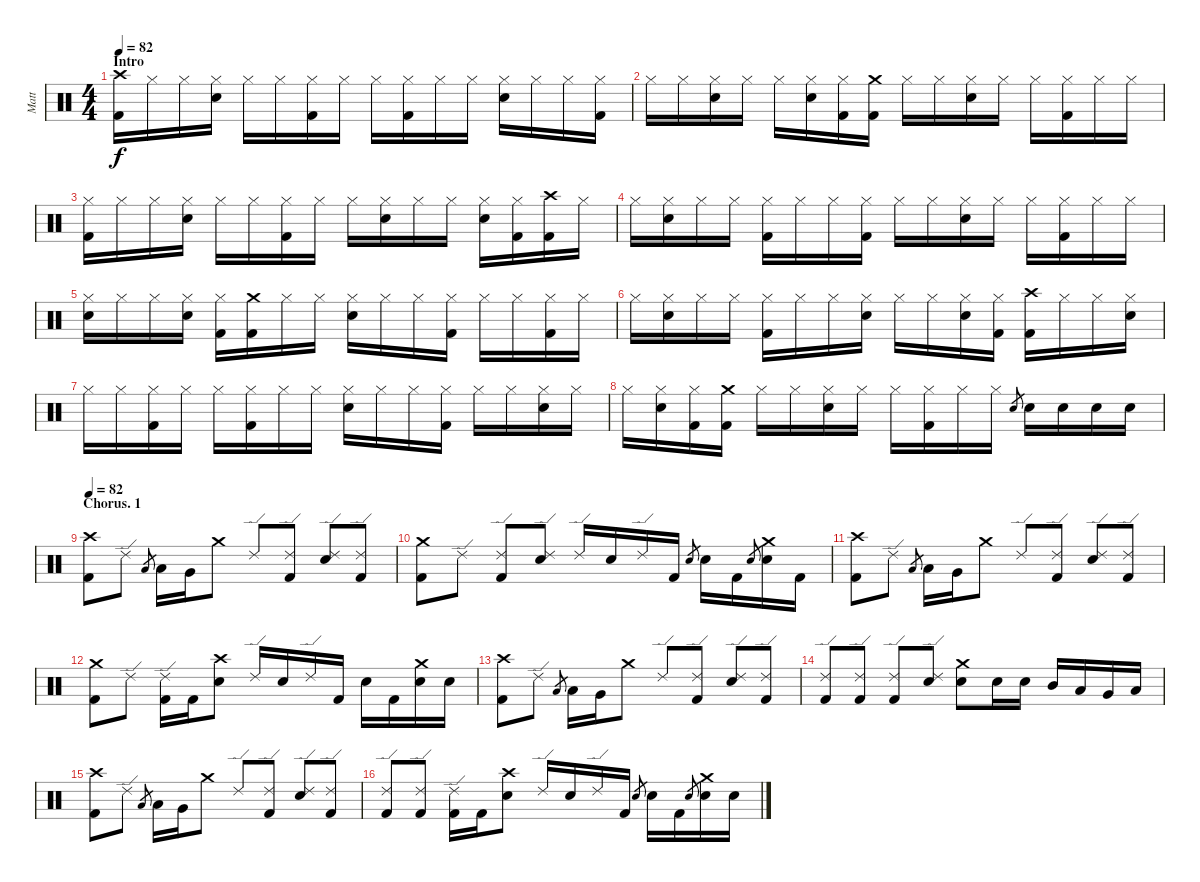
\track ("Matt" "Matt") {instrument percussion}
\staff {score}
\articulation defaults
\ts (4 4)
\section ("" "Intro")
\tempo 82
\tempo 85
\tempo 82
\clef neutral
\ks c
("Crash high (hit)" "Kick (hit) 2").16{dy f} "Hi-Hat (closed)".16 "Hi-Hat (closed)".16 ("Hi-Hat (closed)" "Electric Snare (hit)").16 "Hi-Hat (closed)".16 "Hi-Hat (closed)".16 ("Hi-Hat (closed)" "Kick (hit) 2").16 "Hi-Hat (closed)".16 "Hi-Hat (closed)".16 ("Hi-Hat (closed)" "Kick (hit) 2").16 "Hi-Hat (closed)".16 "Hi-Hat (closed)".16 ("Hi-Hat (closed)" "Electric Snare (hit)").16 "Hi-Hat (closed)".16 "Hi-Hat (closed)".16 ("Hi-Hat (closed)" "Kick (hit) 2").16 |
"Hi-Hat (closed)".16 "Hi-Hat (closed)".16 ("Hi-Hat (closed)" "Electric Snare (hit)").16 "Hi-Hat (closed)".16 "Hi-Hat (closed)".16 ("Hi-Hat (closed)" "Electric Snare (hit)").16 ("Hi-Hat (closed)" "Kick (hit) 2").16 ("Crash medium (hit)" "Kick (hit) 2").16 "Hi-Hat (closed)".16 "Hi-Hat (closed)".16 ("Hi-Hat (closed)" "Electric Snare (hit)").16 "Hi-Hat (closed)".16 "Hi-Hat (closed)".16 ("Hi-Hat (closed)" "Kick (hit) 2").16 "Hi-Hat (closed)".16 "Hi-Hat (closed)".16 |
("Hi-Hat (closed)" "Kick (hit) 2").16 "Hi-Hat (closed)".16 "Hi-Hat (closed)".16 ("Hi-Hat (closed)" "Electric Snare (hit)").16 "Hi-Hat (closed)".16 "Hi-Hat (closed)".16 ("Hi-Hat (closed)" "Kick (hit) 2").16 "Hi-Hat (closed)".16 "Hi-Hat (closed)".16 ("Hi-Hat (closed)" "Electric Snare (hit)").16 "Hi-Hat (closed)".16 "Hi-Hat (closed)".16 ("Hi-Hat (closed)" "Electric Snare (hit)").16 ("Hi-Hat (closed)" "Kick (hit) 2").16 ("Crash high (hit)" "Kick (hit) 2").16 "Hi-Hat (closed)".16 |
"Hi-Hat (closed)".16 ("Hi-Hat (closed)" "Electric Snare (hit)").16 "Hi-Hat (closed)".16 "Hi-Hat (closed)".16 ("Hi-Hat (closed)" "Kick (hit) 2").16 "Hi-Hat (closed)".16 "Hi-Hat (closed)".16 ("Hi-Hat (closed)" "Kick (hit) 2").16 "Hi-Hat (closed)".16 "Hi-Hat (closed)".16 ("Hi-Hat (closed)" "Electric Snare (hit)").16 "Hi-Hat (closed)".16 "Hi-Hat (closed)".16 ("Hi-Hat (closed)" "Kick (hit) 2").16 "Hi-Hat (closed)".16 "Hi-Hat (closed)".16 |
("Hi-Hat (closed)" "Electric Snare (hit)").16 "Hi-Hat (closed)".16 "Hi-Hat (closed)".16 ("Hi-Hat (closed)" "Electric Snare (hit)").16 ("Hi-Hat (closed)" "Kick (hit) 2").16 ("Crash medium (hit)" "Kick (hit) 2").16 "Hi-Hat (closed)".16 "Hi-Hat (closed)".16 ("Hi-Hat (closed)" "Electric Snare (hit)").16 "Hi-Hat (closed)".16 "Hi-Hat (closed)".16 ("Hi-Hat (closed)" "Kick (hit) 2").16 "Hi-Hat (closed)".16 "Hi-Hat (closed)".16 ("Hi-Hat (closed)" "Kick (hit) 2").16 "Hi-Hat (closed)".16 |
"Hi-Hat (closed)".16 ("Hi-Hat (closed)" "Electric Snare (hit)").16 "Hi-Hat (closed)".16 "Hi-Hat (closed)".16 ("Hi-Hat (closed)" "Kick (hit) 2").16 "Hi-Hat (closed)".16 "Hi-Hat (closed)".16 ("Hi-Hat (closed)" "Electric Snare (hit)").16 "Hi-Hat (closed)".16 "Hi-Hat (closed)".16 ("Hi-Hat (closed)" "Electric Snare (hit)").16 ("Hi-Hat (closed)" "Kick (hit) 2").16 ("Crash high (hit)" "Kick (hit) 2").16 "Hi-Hat (closed)".16 "Hi-Hat (closed)".16 ("Hi-Hat (closed)" "Electric Snare (hit)").16 |
"Hi-Hat (closed)".16 "Hi-Hat (closed)".16 ("Hi-Hat (closed)" "Kick (hit) 2").16 "Hi-Hat (closed)".16 "Hi-Hat (closed)".16 ("Hi-Hat (closed)" "Kick (hit) 2").16 "Hi-Hat (closed)".16 "Hi-Hat (closed)".16 ("Hi-Hat (closed)" "Electric Snare (hit)").16 "Hi-Hat (closed)".16 "Hi-Hat (closed)".16 ("Hi-Hat (closed)" "Kick (hit) 2").16 "Hi-Hat (closed)".16 "Hi-Hat (closed)".16 ("Hi-Hat (closed)" "Electric Snare (hit)").16 "Hi-Hat (closed)".16 |
"Hi-Hat (closed)".16 ("Hi-Hat (closed)" "Electric Snare (hit)").16 ("Hi-Hat (closed)" "Kick (hit) 2").16 ("Crash medium (hit)" "Kick (hit) 2").16 "Hi-Hat (closed)".16 "Hi-Hat (closed)".16 ("Hi-Hat (closed)" "Electric Snare (hit)").16 "Hi-Hat (closed)".16 "Hi-Hat (closed)".16 ("Hi-Hat (closed)" "Kick (hit) 2").16 "Hi-Hat (closed)".16 "Hi-Hat (closed)".16 "Electric Snare (hit)".8{gr} "Electric Snare (hit)".16 "Electric Snare (hit)".16 "Electric Snare (hit)".16 "Electric Snare (hit)".16 |
\section ("" "Chorus. 1")
\tempo 82
("Crash high (hit)" "Kick (hit) 2").8 "Ride (edge) 2".8 "Low Tom (hit)".8{gr} "Low Tom (hit)".16 "Very Low Tom (hit)".16 "Crash medium (hit)".8 "Ride (edge) 2".8 ("Ride (edge) 2" "Kick (hit) 2").8 ("Ride (edge) 2" "Electric Snare (hit)").8 ("Ride (edge) 2" "Kick (hit) 2").8 |
("Crash medium (hit)" "Kick (hit) 2").8 "Ride (edge) 2".8 ("Ride (edge) 2" "Kick (hit) 2").8 ("Ride (edge) 2" "Electric Snare (hit)").8 "Ride (edge) 2".16 "Electric Snare (hit)".16 "Ride (edge) 2".16 "Kick (hit) 2".16 "Electric Snare (hit)".8{gr} "Electric Snare (hit)".16 "Kick (hit) 2".16 "Electric Snare (hit)".8{gr} ("Crash medium (hit)" "Electric Snare (hit)").16 "Kick (hit) 2".16 |
("Crash high (hit)" "Kick (hit) 2").8 "Ride (edge) 2".8 "Low Tom (hit)".8{gr} "Low Tom (hit)".16 "Very Low Tom (hit)".16 "Crash medium (hit)".8 "Ride (edge) 2".8 ("Ride (edge) 2" "Kick (hit) 2").8 ("Ride (edge) 2" "Electric Snare (hit)").8 ("Ride (edge) 2" "Kick (hit) 2").8 |
("Crash medium (hit)" "Kick (hit) 2").8 "Ride (edge) 2".8 ("Ride (edge) 2" "Kick (hit) 2").16 "Kick (hit) 2".16 ("Crash high (hit)" "Electric Snare (hit)").8 "Ride (edge) 2".16 "Electric Snare (hit)".16 "Ride (edge) 2".16 "Kick (hit) 2".16 "Electric Snare (hit)".16 "Kick (hit) 2".16 ("Crash medium (hit)" "Electric Snare (hit)").16 "Electric Snare (hit)".16 |
("Crash high (hit)" "Kick (hit) 2").8 "Ride (edge) 2".8 "Low Tom (hit)".8{gr} "Low Tom (hit)".16 "Very Low Tom (hit)".16 "Crash medium (hit)".8 "Ride (edge) 2".8 ("Ride (edge) 2" "Kick (hit) 2").8 ("Ride (edge) 2" "Electric Snare (hit)").8 ("Ride (edge) 2" "Kick (hit) 2").8 |
("Ride (edge) 2" "Kick (hit) 2").8 ("Ride (edge) 2" "Kick (hit) 2").8 ("Ride (edge) 2" "Kick (hit) 2").8 ("Ride (edge) 2" "Electric Snare (hit)").8 ("Crash medium (hit)" "Electric Snare (hit)").8 "Electric Snare (hit)".16 "Electric Snare (hit)".16 "Mid Tom (hit)".16 "Low Tom (hit)".16 "Very Low Tom (hit)".16 "Low Floor Tom (hit)".16 |
("Crash high (hit)" "Kick (hit) 2").8 "Ride (edge) 2".8 "Low Tom (hit)".8{gr} "Low Tom (hit)".16 "Very Low Tom (hit)".16 "Crash medium (hit)".8 "Ride (edge) 2".8 ("Ride (edge) 2" "Kick (hit) 2").8 ("Ride (edge) 2" "Electric Snare (hit)").8 ("Ride (edge) 2" "Kick (hit) 2").8 |
("Ride (edge) 2" "Kick (hit) 2").8 ("Ride (edge) 2" "Kick (hit) 2").8 ("Ride (edge) 2" "Kick (hit) 2").16 "Kick (hit) 2".16 ("Crash high (hit)" "Electric Snare (hit)").8 "Ride (edge) 2".16 "Electric Snare (hit)".16 "Ride (edge) 2".16 "Kick (hit) 2".16 "Electric Snare (hit)".8{gr} "Electric Snare (hit)".16 "Kick (hit) 2".16 "Electric Snare (hit)".8{gr} ("Crash medium (hit)" "Electric Snare (hit)").16 "Electric Snare (hit)".16
